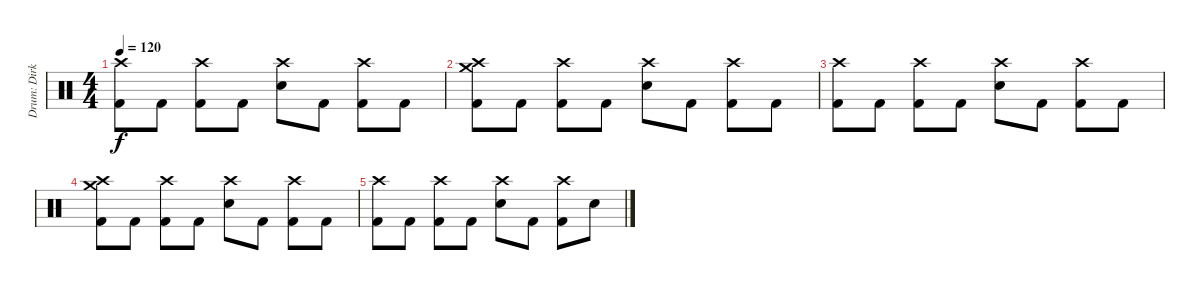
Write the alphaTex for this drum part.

\track ("Drum: Dirk" "Drum: Dirk") {instrument percussion}
\staff {score}
\articulation defaults
\ts (4 4)
\tempo 120
\clef neutral
\ks c
("Crash high (hit)" "Kick (hit) 2").8{dy f} "Kick (hit) 2".8 ("Crash high (hit)" "Kick (hit) 2").8 "Kick (hit) 2".8 ("Crash high (hit)" "Electric Snare (hit)").8 "Kick (hit) 2".8 ("Crash high (hit)" "Kick (hit) 2").8 "Kick (hit) 2".8 |
("Crash high (hit)" "Crash medium (hit)" "Kick (hit) 2").8 "Kick (hit) 2".8 ("Crash high (hit)" "Kick (hit) 2").8 "Kick (hit) 2".8 ("Crash high (hit)" "Electric Snare (hit)").8 "Kick (hit) 2".8 ("Crash high (hit)" "Kick (hit) 2").8 "Kick (hit) 2".8 |
("Crash high (hit)" "Kick (hit) 2").8 "Kick (hit) 2".8 ("Crash high (hit)" "Kick (hit) 2").8 "Kick (hit) 2".8 ("Crash high (hit)" "Electric Snare (hit)").8 "Kick (hit) 2".8 ("Crash high (hit)" "Kick (hit) 2").8 "Kick (hit) 2".8 |
("Crash high (hit)" "Crash medium (hit)" "Kick (hit) 2").8 "Kick (hit) 2".8 ("Crash high (hit)" "Kick (hit) 2").8 "Kick (hit) 2".8 ("Crash high (hit)" "Electric Snare (hit)").8 "Kick (hit) 2".8 ("Crash high (hit)" "Kick (hit) 2").8 "Kick (hit) 2".8 |
("Crash high (hit)" "Kick (hit) 2").8 "Kick (hit) 2".8 ("Crash high (hit)" "Kick (hit) 2").8 "Kick (hit) 2".8 ("Crash high (hit)" "Electric Snare (hit)").8 "Kick (hit) 2".8 ("Crash high (hit)" "Kick (hit) 2").8 "Electric Snare (hit)".8
